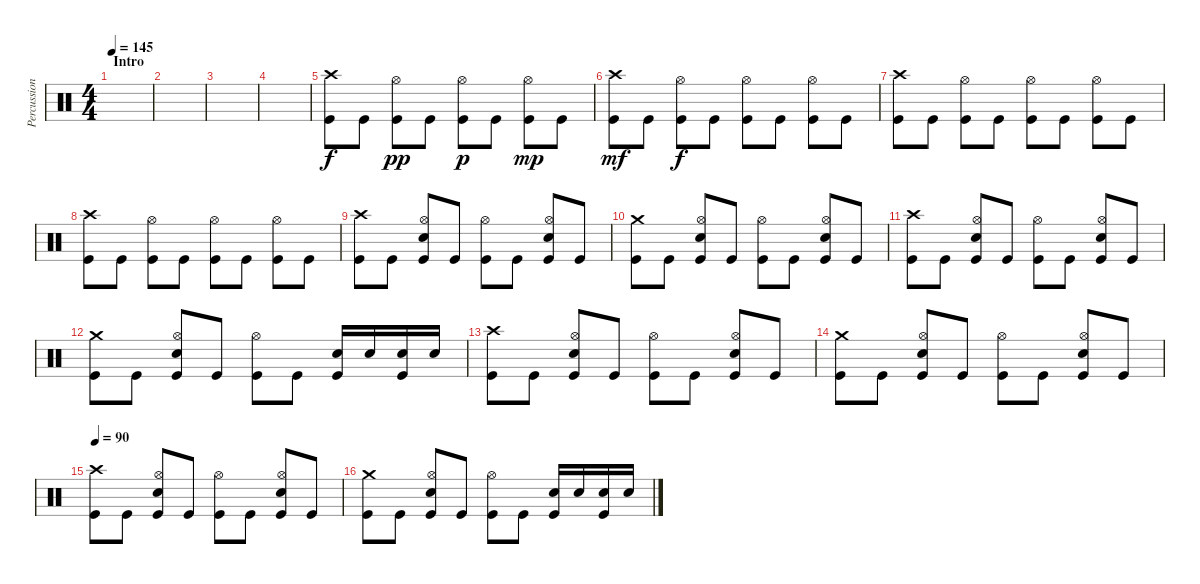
\track ("Percussion" "Percussion") {instrument percussion}
\staff {score}
\articulation defaults
\ts (4 4)
\section ("" "Intro")
\tempo 145
\clef neutral
\ks c
|
|
|
|
("Crash high (hit)" "Kick (hit)").8 "Kick (hit)".8 ("Hi-Hat (open)" "Kick (hit)").8{dy pp} "Kick (hit)".8 ("Hi-Hat (open)" "Kick (hit)").8{dy p} "Kick (hit)".8 ("Hi-Hat (open)" "Kick (hit)").8{dy mp} "Kick (hit)".8 |
("Crash high (hit)" "Kick (hit)").8{dy mf} "Kick (hit)".8 ("Hi-Hat (open)" "Kick (hit)").8{dy f} "Kick (hit)".8 ("Hi-Hat (open)" "Kick (hit)").8 "Kick (hit)".8 ("Hi-Hat (open)" "Kick (hit)").8 "Kick (hit)".8 |
("Crash high (hit)" "Kick (hit)").8 "Kick (hit)".8 ("Hi-Hat (open)" "Kick (hit)").8 "Kick (hit)".8 ("Hi-Hat (open)" "Kick (hit)").8 "Kick (hit)".8 ("Hi-Hat (open)" "Kick (hit)").8 "Kick (hit)".8 |
("Crash high (hit)" "Kick (hit)").8 "Kick (hit)".8 ("Hi-Hat (open)" "Kick (hit)").8 "Kick (hit)".8 ("Hi-Hat (open)" "Kick (hit)").8 "Kick (hit)".8 ("Hi-Hat (open)" "Kick (hit)").8 "Kick (hit)".8 |
("Crash high (hit)" "Kick (hit)").8 "Kick (hit)".8 ("Hi-Hat (open)" "Snare (hit) 2" "Kick (hit)").8 "Kick (hit)".8 ("Hi-Hat (open)" "Kick (hit)").8 "Kick (hit)".8 ("Hi-Hat (open)" "Snare (hit) 2" "Kick (hit)").8 "Kick (hit)".8 |
("Crash medium (hit)" "Kick (hit)").8 "Kick (hit)".8 ("Hi-Hat (open)" "Snare (hit) 2" "Kick (hit)").8 "Kick (hit)".8 ("Hi-Hat (open)" "Kick (hit)").8 "Kick (hit)".8 ("Hi-Hat (open)" "Snare (hit) 2" "Kick (hit)").8 "Kick (hit)".8 |
("Crash high (hit)" "Kick (hit)").8 "Kick (hit)".8 ("Hi-Hat (open)" "Snare (hit) 2" "Kick (hit)").8 "Kick (hit)".8 ("Hi-Hat (open)" "Kick (hit)").8 "Kick (hit)".8 ("Hi-Hat (open)" "Snare (hit) 2" "Kick (hit)").8 "Kick (hit)".8 |
("Crash medium (hit)" "Kick (hit)").8 "Kick (hit)".8 ("Hi-Hat (open)" "Snare (hit) 2" "Kick (hit)").8 "Kick (hit)".8 ("Hi-Hat (open)" "Kick (hit)").8 "Kick (hit)".8 ("Snare (hit) 2" "Kick (hit)").16 "Snare (hit) 2".16 ("Snare (hit) 2" "Kick (hit)").16 "Snare (hit) 2".16 |
("Crash high (hit)" "Kick (hit)").8 "Kick (hit)".8 ("Hi-Hat (open)" "Snare (hit) 2" "Kick (hit)").8 "Kick (hit)".8 ("Hi-Hat (open)" "Kick (hit)").8 "Kick (hit)".8 ("Hi-Hat (open)" "Snare (hit) 2" "Kick (hit)").8 "Kick (hit)".8 |
("Crash medium (hit)" "Kick (hit)").8 "Kick (hit)".8 ("Hi-Hat (open)" "Snare (hit) 2" "Kick (hit)").8 "Kick (hit)".8 ("Hi-Hat (open)" "Kick (hit)").8 "Kick (hit)".8 ("Hi-Hat (open)" "Snare (hit) 2" "Kick (hit)").8 "Kick (hit)".8 |
\tempo 90
("Crash high (hit)" "Kick (hit)").8 "Kick (hit)".8 ("Hi-Hat (open)" "Snare (hit) 2" "Kick (hit)").8 "Kick (hit)".8 ("Hi-Hat (open)" "Kick (hit)").8 "Kick (hit)".8 ("Hi-Hat (open)" "Snare (hit) 2" "Kick (hit)").8 "Kick (hit)".8 |
("Crash medium (hit)" "Kick (hit)").8 "Kick (hit)".8 ("Hi-Hat (open)" "Snare (hit) 2" "Kick (hit)").8 "Kick (hit)".8 ("Hi-Hat (open)" "Kick (hit)").8 "Kick (hit)".8 ("Snare (hit) 2" "Kick (hit)").16 "Snare (hit) 2".16 ("Snare (hit) 2" "Kick (hit)").16 "Snare (hit) 2".16
